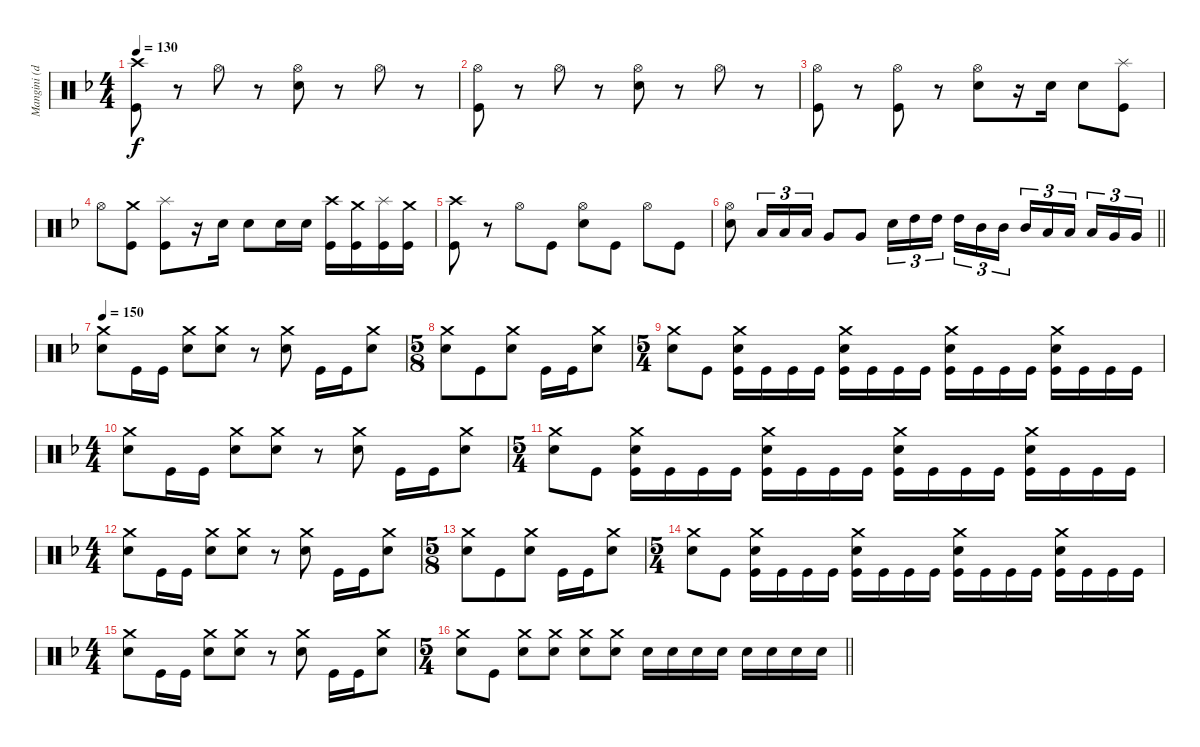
\track ("Mangini (drums)" "Mangini (d") {instrument percussion}
\staff {score}
\articulation defaults
\ts (4 4)
\tempo 130
\clef neutral
\ks dminor
("Crash high (hit)" "Kick (hit)").8{dy f} r.8 "Hi-Hat (open)".8 r.8 ("Hi-Hat (open)" "Snare (hit) 2").8 r.8 "Hi-Hat (open)".8 r.8 |
("Hi-Hat (open)" "Kick (hit)").8 r.8 "Hi-Hat (open)".8 r.8 ("Hi-Hat (open)" "Snare (hit) 2").8 r.8 "Hi-Hat (open)".8 r.8 |
("Hi-Hat (open)" "Kick (hit)").8 r.8 ("Hi-Hat (open)" "Kick (hit)").8 r.8 ("Hi-Hat (open)" "Snare (hit) 2").8 r.16 "Snare (hit) 2".16 "Snare (hit) 2".8 ("Splash (hit)" "Kick (hit)").8 |
"Hi-Hat (open)".8 ("Crash medium (hit)" "Kick (hit)").8 ("Splash (hit)" "Kick (hit)").8 r.16 "Snare (hit) 2".16 "Snare (hit) 2".8 "Snare (hit) 2".16 "Snare (hit) 2".16 ("Crash high (hit)" "Kick (hit)").16 ("Crash medium (hit)" "Kick (hit)").16 ("Splash (hit)" "Kick (hit)").16 ("Crash medium (hit)" "Kick (hit)").16 |
("Crash high (hit)" "Kick (hit)").8 r.8 "Hi-Hat (open)".8 "Kick (hit)".8 ("Hi-Hat (open)" "Snare (hit) 2").8 "Kick (hit)".8 "Hi-Hat (open)".8 "Kick (hit)".8 |
\barLineRight lightlight
("Hi-Hat (open)" "Snare (hit) 2").8 "Low Tom (hit)".16{tu (3 2)} "Low Tom (hit)".16{tu (3 2)} "Low Tom (hit)".16{tu (3 2)} "Very Low Tom (hit)".8 "Very Low Tom (hit)".8 "Snare (hit) 2".16{tu (3 2)} "High Tom (hit)".16{tu (3 2)} "High Tom (hit)".16{tu (3 2) beam splitsecondary} "High Tom (hit)".16{tu (3 2)} "Mid Tom (hit)".16{tu (3 2)} "Mid Tom (hit)".16{tu (3 2)} "Mid Tom (hit)".16{tu (3 2)} "Low Tom (hit)".16{tu (3 2)} "Low Tom (hit)".16{tu (3 2) beam splitsecondary} "Low Tom (hit)".16{tu (3 2)} "Very Low Tom (hit)".16{tu (3 2)} "Very Low Tom (hit)".16{tu (3 2)} |
\tempo 150
("Crash medium (hit)" "Snare (hit) 2").8 "Kick (hit)".16 "Kick (hit)".16 ("Crash medium (hit)" "Snare (hit) 2").8 ("Crash medium (hit)" "Snare (hit) 2").8 r.8 ("Crash medium (hit)" "Snare (hit) 2").8 "Kick (hit)".16 "Kick (hit)".16 ("Crash medium (hit)" "Snare (hit) 2").8 |
\ts (5 8)
("Crash medium (hit)" "Snare (hit) 2").8 "Kick (hit)".8 ("Crash medium (hit)" "Snare (hit) 2").8 "Kick (hit)".16 "Kick (hit)".16 ("Crash medium (hit)" "Snare (hit) 2").8 |
\ts (5 4)
("Crash medium (hit)" "Snare (hit) 2").8 "Kick (hit)".8 ("Crash medium (hit)" "Snare (hit) 2" "Kick (hit)").16 "Kick (hit)".16 "Kick (hit)".16 "Kick (hit)".16 ("Crash medium (hit)" "Snare (hit) 2" "Kick (hit)").16 "Kick (hit)".16 "Kick (hit)".16 "Kick (hit)".16 ("Crash medium (hit)" "Snare (hit) 2" "Kick (hit)").16 "Kick (hit)".16 "Kick (hit)".16 "Kick (hit)".16 ("Crash medium (hit)" "Snare (hit) 2" "Kick (hit)").16 "Kick (hit)".16 "Kick (hit)".16 "Kick (hit)".16 |
\ts (4 4)
("Crash medium (hit)" "Snare (hit) 2").8 "Kick (hit)".16 "Kick (hit)".16 ("Crash medium (hit)" "Snare (hit) 2").8 ("Crash medium (hit)" "Snare (hit) 2").8 r.8 ("Crash medium (hit)" "Snare (hit) 2").8 "Kick (hit)".16 "Kick (hit)".16 ("Crash medium (hit)" "Snare (hit) 2").8 |
\ts (5 4)
("Crash medium (hit)" "Snare (hit) 2").8 "Kick (hit)".8 ("Crash medium (hit)" "Snare (hit) 2" "Kick (hit)").16 "Kick (hit)".16 "Kick (hit)".16 "Kick (hit)".16 ("Crash medium (hit)" "Snare (hit) 2" "Kick (hit)").16 "Kick (hit)".16 "Kick (hit)".16 "Kick (hit)".16 ("Crash medium (hit)" "Snare (hit) 2" "Kick (hit)").16 "Kick (hit)".16 "Kick (hit)".16 "Kick (hit)".16 ("Crash medium (hit)" "Snare (hit) 2" "Kick (hit)").16 "Kick (hit)".16 "Kick (hit)".16 "Kick (hit)".16 |
\ts (4 4)
("Crash medium (hit)" "Snare (hit) 2").8 "Kick (hit)".16 "Kick (hit)".16 ("Crash medium (hit)" "Snare (hit) 2").8 ("Crash medium (hit)" "Snare (hit) 2").8 r.8 ("Crash medium (hit)" "Snare (hit) 2").8 "Kick (hit)".16 "Kick (hit)".16 ("Crash medium (hit)" "Snare (hit) 2").8 |
\ts (5 8)
("Crash medium (hit)" "Snare (hit) 2").8 "Kick (hit)".8 ("Crash medium (hit)" "Snare (hit) 2").8 "Kick (hit)".16 "Kick (hit)".16 ("Crash medium (hit)" "Snare (hit) 2").8 |
\ts (5 4)
("Crash medium (hit)" "Snare (hit) 2").8 "Kick (hit)".8 ("Crash medium (hit)" "Snare (hit) 2" "Kick (hit)").16 "Kick (hit)".16 "Kick (hit)".16 "Kick (hit)".16 ("Crash medium (hit)" "Snare (hit) 2" "Kick (hit)").16 "Kick (hit)".16 "Kick (hit)".16 "Kick (hit)".16 ("Crash medium (hit)" "Snare (hit) 2" "Kick (hit)").16 "Kick (hit)".16 "Kick (hit)".16 "Kick (hit)".16 ("Crash medium (hit)" "Snare (hit) 2" "Kick (hit)").16 "Kick (hit)".16 "Kick (hit)".16 "Kick (hit)".16 |
\ts (4 4)
("Crash medium (hit)" "Snare (hit) 2").8 "Kick (hit)".16 "Kick (hit)".16 ("Crash medium (hit)" "Snare (hit) 2").8 ("Crash medium (hit)" "Snare (hit) 2").8 r.8 ("Crash medium (hit)" "Snare (hit) 2").8 "Kick (hit)".16 "Kick (hit)".16 ("Crash medium (hit)" "Snare (hit) 2").8 |
\ts (5 4)
\barLineRight lightlight
("Crash medium (hit)" "Snare (hit) 2").8 "Kick (hit)".8 ("Crash medium (hit)" "Snare (hit) 2").8 ("Crash medium (hit)" "Snare (hit) 2").8 ("Crash medium (hit)" "Snare (hit) 2").8 ("Crash medium (hit)" "Snare (hit) 2").8 "Snare (hit) 2".16 "Snare (hit) 2".16 "Snare (hit) 2".16 "Snare (hit) 2".16 "Snare (hit) 2".16 "Snare (hit) 2".16 "Snare (hit) 2".16 "Snare (hit) 2".16
